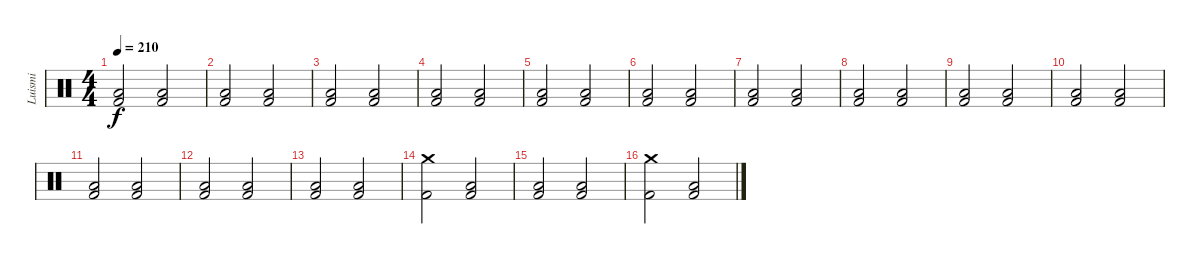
\track ("Luismi" "Luismi") {instrument percussion}
\staff {score}
\articulation defaults
\ts (4 4)
\tempo 210
\clef neutral
\ks c
("Low Floor Tom (hit)" "Kick (hit) 2").2{dy f} ("Low Floor Tom (hit)" "Kick (hit) 2").2 |
("Low Floor Tom (hit)" "Kick (hit) 2").2 ("Low Floor Tom (hit)" "Kick (hit) 2").2 |
("Low Floor Tom (hit)" "Kick (hit) 2").2 ("Low Floor Tom (hit)" "Kick (hit) 2").2 |
("Low Floor Tom (hit)" "Kick (hit) 2").2 ("Low Floor Tom (hit)" "Kick (hit) 2").2 |
("Low Floor Tom (hit)" "Kick (hit) 2").2 ("Low Floor Tom (hit)" "Kick (hit) 2").2 |
("Low Floor Tom (hit)" "Kick (hit) 2").2 ("Low Floor Tom (hit)" "Kick (hit) 2").2 |
("Low Floor Tom (hit)" "Kick (hit) 2").2 ("Low Floor Tom (hit)" "Kick (hit) 2").2 |
("Low Floor Tom (hit)" "Kick (hit) 2").2 ("Low Floor Tom (hit)" "Kick (hit) 2").2 |
("Low Floor Tom (hit)" "Kick (hit) 2").2 ("Low Floor Tom (hit)" "Kick (hit) 2").2 |
("Low Floor Tom (hit)" "Kick (hit) 2").2 ("Low Floor Tom (hit)" "Kick (hit) 2").2 |
("Low Floor Tom (hit)" "Kick (hit) 2").2 ("Low Floor Tom (hit)" "Kick (hit) 2").2 |
("Low Floor Tom (hit)" "Kick (hit) 2").2 ("Low Floor Tom (hit)" "Kick (hit) 2").2 |
("Low Floor Tom (hit)" "Kick (hit) 2").2 ("Low Floor Tom (hit)" "Kick (hit) 2").2 |
("Crash medium (hit)" "Kick (hit) 2").2 ("Low Floor Tom (hit)" "Kick (hit) 2").2 |
("Low Floor Tom (hit)" "Kick (hit) 2").2 ("Low Floor Tom (hit)" "Kick (hit) 2").2 |
("Crash medium (hit)" "Kick (hit) 2").2 ("Low Floor Tom (hit)" "Kick (hit) 2").2
